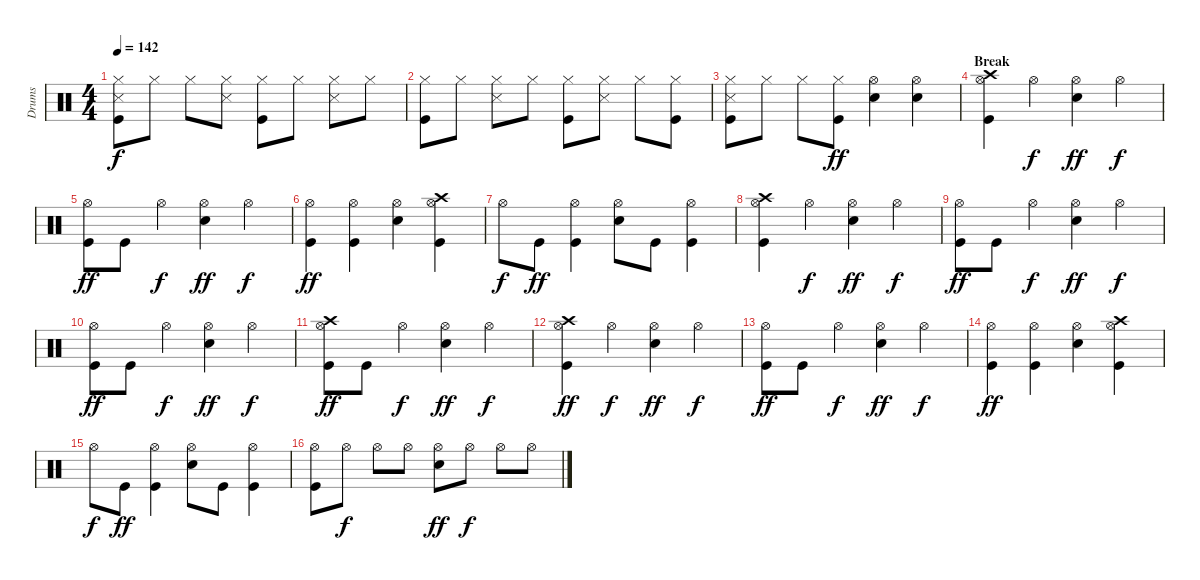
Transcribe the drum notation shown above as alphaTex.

\track ("Drums" "Drums") {instrument percussion}
\staff {score}
\articulation defaults
\ts (4 4)
\tempo 142
\clef neutral
\ks c
("Hi-Hat (closed)" "Snare (side stick) 3" "Kick (hit)").8{dy f} "Hi-Hat (closed)".8 "Hi-Hat (closed)".8 ("Hi-Hat (closed)" "Snare (side stick) 3").8 ("Hi-Hat (closed)" "Kick (hit)").8 "Hi-Hat (closed)".8 ("Hi-Hat (closed)" "Snare (side stick) 3").8 "Hi-Hat (closed)".8 |
("Hi-Hat (closed)" "Kick (hit)").8 "Hi-Hat (closed)".8 ("Hi-Hat (closed)" "Snare (side stick) 3").8 "Hi-Hat (closed)".8 ("Hi-Hat (closed)" "Kick (hit)").8 ("Hi-Hat (closed)" "Snare (side stick) 3").8 "Hi-Hat (closed)".8 ("Hi-Hat (closed)" "Kick (hit)").8 |
("Hi-Hat (closed)" "Snare (side stick) 3" "Kick (hit)").8 "Hi-Hat (closed)".8 "Hi-Hat (closed)".8 ("Hi-Hat (closed)" "Kick (hit)").8{dy ff} ("Hi-Hat (open)" "Snare (hit) 2").4 ("Hi-Hat (open)" "Snare (hit) 2").4 |
\section ("" "Break")
("Hi-Hat (open)" "Crash high (hit)" "Kick (hit)").4 "Hi-Hat (open)".4{dy f} ("Hi-Hat (open)" "Snare (hit) 2").4{dy ff} "Hi-Hat (open)".4{dy f} |
("Hi-Hat (open)" "Kick (hit)").8{dy ff} "Kick (hit)".8 "Hi-Hat (open)".4{dy f} ("Hi-Hat (open)" "Snare (hit) 2").4{dy ff} "Hi-Hat (open)".4{dy f} |
("Hi-Hat (open)" "Kick (hit)").4{dy ff} ("Hi-Hat (open)" "Kick (hit)").4 ("Hi-Hat (open)" "Snare (hit) 2").4 ("Hi-Hat (open)" "Crash high (hit)" "Kick (hit)").4 |
"Hi-Hat (open)".8{dy f} "Kick (hit)".8{dy ff} ("Hi-Hat (open)" "Kick (hit)").4 ("Hi-Hat (open)" "Snare (hit) 2").8 "Kick (hit)".8 ("Hi-Hat (open)" "Kick (hit)").4 |
("Hi-Hat (open)" "Crash high (hit)" "Kick (hit)").4 "Hi-Hat (open)".4{dy f} ("Hi-Hat (open)" "Snare (hit) 2").4{dy ff} "Hi-Hat (open)".4{dy f} |
("Hi-Hat (open)" "Kick (hit)").8{dy ff} "Kick (hit)".8 "Hi-Hat (open)".4{dy f} ("Hi-Hat (open)" "Snare (hit) 2").4{dy ff} "Hi-Hat (open)".4{dy f} |
("Hi-Hat (open)" "Kick (hit)").8{dy ff} "Kick (hit)".8 "Hi-Hat (open)".4{dy f} ("Hi-Hat (open)" "Snare (hit) 2").4{dy ff} "Hi-Hat (open)".4{dy f} |
("Hi-Hat (open)" "Crash high (hit)" "Kick (hit)").8{dy ff} "Kick (hit)".8 "Hi-Hat (open)".4{dy f} ("Hi-Hat (open)" "Snare (hit) 2").4{dy ff} "Hi-Hat (open)".4{dy f} |
("Hi-Hat (open)" "Crash high (hit)" "Kick (hit)").4{dy ff} "Hi-Hat (open)".4{dy f} ("Hi-Hat (open)" "Snare (hit) 2").4{dy ff} "Hi-Hat (open)".4{dy f} |
("Hi-Hat (open)" "Kick (hit)").8{dy ff} "Kick (hit)".8 "Hi-Hat (open)".4{dy f} ("Hi-Hat (open)" "Snare (hit) 2").4{dy ff} "Hi-Hat (open)".4{dy f} |
("Hi-Hat (open)" "Kick (hit)").4{dy ff} ("Hi-Hat (open)" "Kick (hit)").4 ("Hi-Hat (open)" "Snare (hit) 2").4 ("Hi-Hat (open)" "Crash high (hit)" "Kick (hit)").4 |
"Hi-Hat (open)".8{dy f} "Kick (hit)".8{dy ff} ("Hi-Hat (open)" "Kick (hit)").4 ("Hi-Hat (open)" "Snare (hit) 2").8 "Kick (hit)".8 ("Hi-Hat (open)" "Kick (hit)").4 |
("Hi-Hat (open)" "Kick (hit)").8 "Hi-Hat (open)".8{dy f} "Hi-Hat (open)".8 "Hi-Hat (open)".8 ("Hi-Hat (open)" "Snare (hit) 2").8{dy ff} "Hi-Hat (open)".8{dy f} "Hi-Hat (open)".8 "Hi-Hat (open)".8
